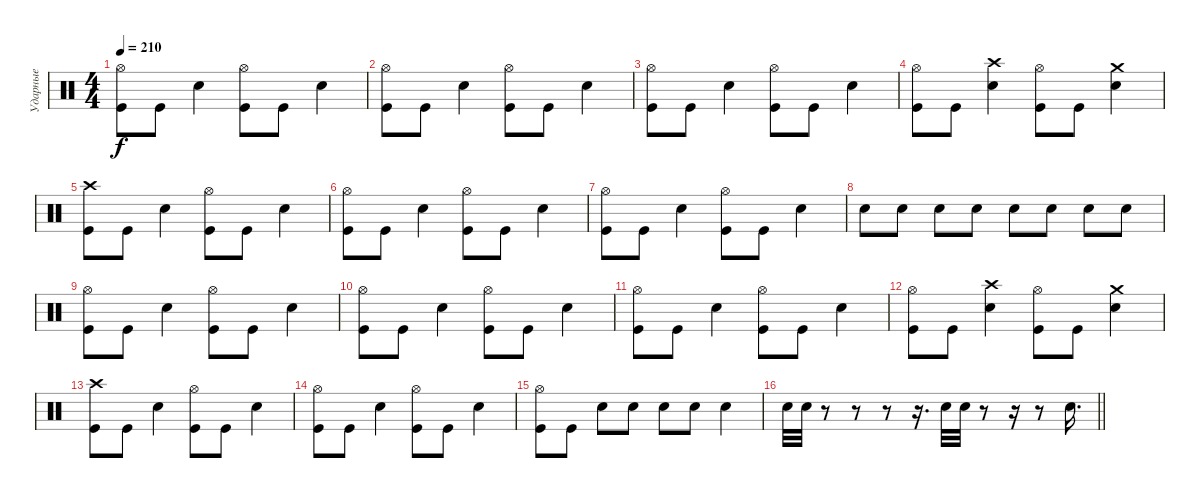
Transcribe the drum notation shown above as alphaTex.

\track ("Ударные" "Ударные") {instrument percussion}
\staff {score}
\articulation defaults
\ts (4 4)
\tempo 210
\clef neutral
\ks c
("Hi-Hat (open)" "Kick (hit)").8{dy f} "Kick (hit)".8 "Snare (hit) 2".4 ("Hi-Hat (open)" "Kick (hit)").8 "Kick (hit)".8 "Snare (hit) 2".4 |
("Hi-Hat (open)" "Kick (hit)").8 "Kick (hit)".8 "Snare (hit) 2".4 ("Hi-Hat (open)" "Kick (hit)").8 "Kick (hit)".8 "Snare (hit) 2".4 |
("Hi-Hat (open)" "Kick (hit)").8 "Kick (hit)".8 "Snare (hit) 2".4 ("Hi-Hat (open)" "Kick (hit)").8 "Kick (hit)".8 "Snare (hit) 2".4 |
("Hi-Hat (open)" "Kick (hit)").8 "Kick (hit)".8 ("Crash high (hit)" "Snare (hit) 2").4 ("Hi-Hat (open)" "Kick (hit)").8 "Kick (hit)".8 ("Crash medium (hit)" "Snare (hit) 2").4 |
("Crash high (hit)" "Kick (hit)").8 "Kick (hit)".8 "Snare (hit) 2".4 ("Hi-Hat (open)" "Kick (hit)").8 "Kick (hit)".8 "Snare (hit) 2".4 |
("Hi-Hat (open)" "Kick (hit)").8 "Kick (hit)".8 "Snare (hit) 2".4 ("Hi-Hat (open)" "Kick (hit)").8 "Kick (hit)".8 "Snare (hit) 2".4 |
("Hi-Hat (open)" "Kick (hit)").8 "Kick (hit)".8 "Snare (hit) 2".4 ("Hi-Hat (open)" "Kick (hit)").8 "Kick (hit)".8 "Snare (hit) 2".4 |
"Snare (hit) 2".8 "Snare (hit) 2".8 "Snare (hit) 2".8 "Snare (hit) 2".8 "Snare (hit) 2".8 "Snare (hit) 2".8 "Snare (hit) 2".8 "Snare (hit) 2".8 |
("Hi-Hat (open)" "Kick (hit)").8 "Kick (hit)".8 "Snare (hit) 2".4 ("Hi-Hat (open)" "Kick (hit)").8 "Kick (hit)".8 "Snare (hit) 2".4 |
("Hi-Hat (open)" "Kick (hit)").8 "Kick (hit)".8 "Snare (hit) 2".4 ("Hi-Hat (open)" "Kick (hit)").8 "Kick (hit)".8 "Snare (hit) 2".4 |
("Hi-Hat (open)" "Kick (hit)").8 "Kick (hit)".8 "Snare (hit) 2".4 ("Hi-Hat (open)" "Kick (hit)").8 "Kick (hit)".8 "Snare (hit) 2".4 |
("Hi-Hat (open)" "Kick (hit)").8 "Kick (hit)".8 ("Crash high (hit)" "Snare (hit) 2").4 ("Hi-Hat (open)" "Kick (hit)").8 "Kick (hit)".8 ("Crash medium (hit)" "Snare (hit) 2").4 |
("Crash high (hit)" "Kick (hit)").8 "Kick (hit)".8 "Snare (hit) 2".4 ("Hi-Hat (open)" "Kick (hit)").8 "Kick (hit)".8 "Snare (hit) 2".4 |
("Hi-Hat (open)" "Kick (hit)").8 "Kick (hit)".8 "Snare (hit) 2".4 ("Hi-Hat (open)" "Kick (hit)").8 "Kick (hit)".8 "Snare (hit) 2".4 |
("Hi-Hat (open)" "Kick (hit)").8 "Kick (hit)".8 "Snare (hit) 2".8 "Snare (hit) 2".8 "Snare (hit) 2".8 "Snare (hit) 2".8 "Snare (hit) 2".4 |
\barLineRight lightlight "Snare (hit) 2".32 "Snare (hit) 2".32
r.8 r.8 r.8 r.16{d} "Snare (hit) 2".32 "Snare (hit) 2".32 r.8 r.16 r.8 "Snare (hit) 2".16{d}
